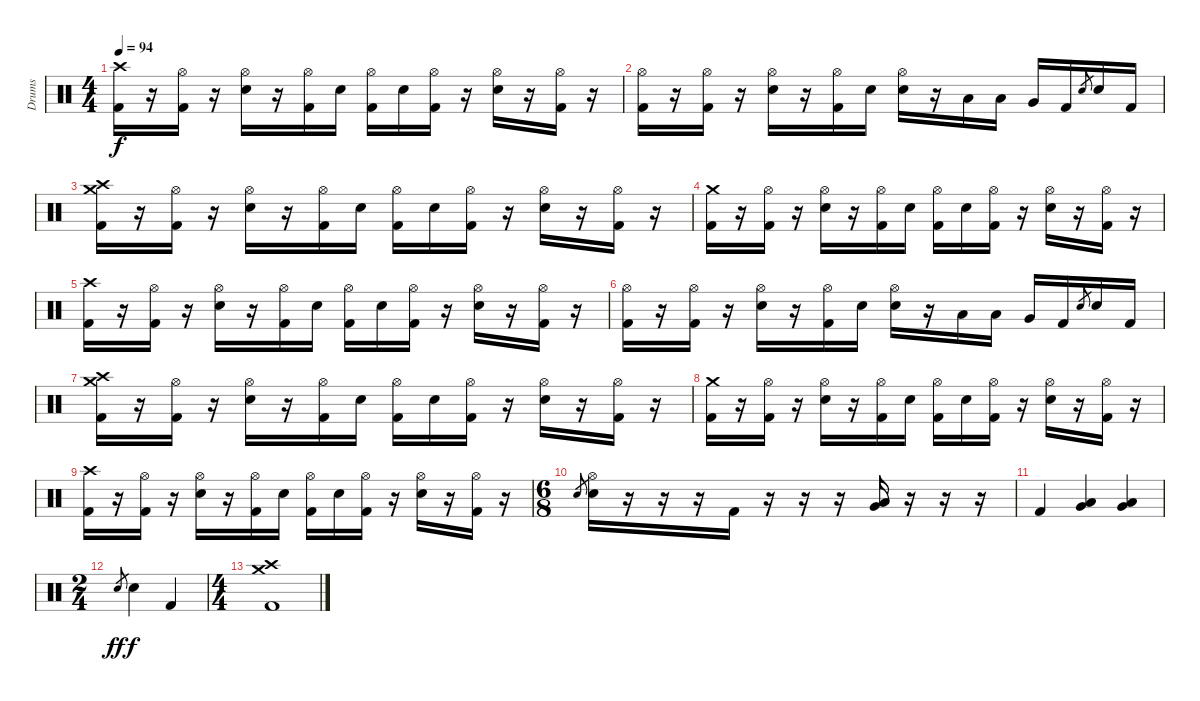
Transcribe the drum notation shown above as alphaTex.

\track ("Drums" "Drums") {instrument percussion}
\staff {score}
\articulation defaults
\ts (4 4)
\tempo 94
\clef neutral
\ks c
("Crash high (hit)" "Kick (hit) 2").16{dy f} r.16 ("Hi-Hat (open)" "Kick (hit) 2").16 r.16 ("Hi-Hat (open)" "Snare (hit) 2").16 r.16 ("Hi-Hat (open)" "Kick (hit) 2").16 "Snare (hit) 2".16 ("Hi-Hat (open)" "Kick (hit) 2").16 "Snare (hit) 2".16 ("Hi-Hat (open)" "Kick (hit) 2").16 r.16 ("Hi-Hat (open)" "Snare (hit) 2").16 r.16 ("Hi-Hat (open)" "Kick (hit) 2").16 r.16 |
("Hi-Hat (open)" "Kick (hit) 2").16 r.16 ("Hi-Hat (open)" "Kick (hit) 2").16 r.16 ("Hi-Hat (open)" "Snare (hit) 2").16 r.16 ("Hi-Hat (open)" "Kick (hit) 2").16 "Snare (hit) 2".16 ("Hi-Hat (open)" "Snare (hit) 2").16 r.16 "Low Tom (hit)".16 "Low Tom (hit)".16 "Very Low Tom (hit)".16 "Kick (hit) 2".16 "Snare (hit) 2".8{gr} "Snare (hit) 2".16 "Kick (hit) 2".16 |
("Crash high (hit)" "Crash medium (hit)" "Kick (hit) 2").16 r.16 ("Hi-Hat (open)" "Kick (hit) 2").16 r.16 ("Hi-Hat (open)" "Snare (hit) 2").16 r.16 ("Hi-Hat (open)" "Kick (hit) 2").16 "Snare (hit) 2".16 ("Hi-Hat (open)" "Kick (hit) 2").16 "Snare (hit) 2".16 ("Hi-Hat (open)" "Kick (hit) 2").16 r.16 ("Hi-Hat (open)" "Snare (hit) 2").16 r.16 ("Hi-Hat (open)" "Kick (hit) 2").16 r.16 |
("Crash medium (hit)" "Kick (hit) 2").16 r.16 ("Hi-Hat (open)" "Kick (hit) 2").16 r.16 ("Hi-Hat (open)" "Snare (hit) 2").16 r.16 ("Hi-Hat (open)" "Kick (hit) 2").16 "Snare (hit) 2".16 ("Hi-Hat (open)" "Kick (hit) 2").16 "Snare (hit) 2".16 ("Hi-Hat (open)" "Kick (hit) 2").16 r.16 ("Hi-Hat (open)" "Snare (hit) 2").16 r.16 ("Hi-Hat (open)" "Kick (hit) 2").16 r.16 |
("Crash high (hit)" "Kick (hit) 2").16 r.16 ("Hi-Hat (open)" "Kick (hit) 2").16 r.16 ("Hi-Hat (open)" "Snare (hit) 2").16 r.16 ("Hi-Hat (open)" "Kick (hit) 2").16 "Snare (hit) 2".16 ("Hi-Hat (open)" "Kick (hit) 2").16 "Snare (hit) 2".16 ("Hi-Hat (open)" "Kick (hit) 2").16 r.16 ("Hi-Hat (open)" "Snare (hit) 2").16 r.16 ("Hi-Hat (open)" "Kick (hit) 2").16 r.16 |
("Hi-Hat (open)" "Kick (hit) 2").16 r.16 ("Hi-Hat (open)" "Kick (hit) 2").16 r.16 ("Hi-Hat (open)" "Snare (hit) 2").16 r.16 ("Hi-Hat (open)" "Kick (hit) 2").16 "Snare (hit) 2".16 ("Hi-Hat (open)" "Snare (hit) 2").16 r.16 "Low Tom (hit)".16 "Low Tom (hit)".16 "Very Low Tom (hit)".16 "Kick (hit) 2".16 "Snare (hit) 2".8{gr} "Snare (hit) 2".16 "Kick (hit) 2".16 |
("Crash high (hit)" "Crash medium (hit)" "Kick (hit) 2").16 r.16 ("Hi-Hat (open)" "Kick (hit) 2").16 r.16 ("Hi-Hat (open)" "Snare (hit) 2").16 r.16 ("Hi-Hat (open)" "Kick (hit) 2").16 "Snare (hit) 2".16 ("Hi-Hat (open)" "Kick (hit) 2").16 "Snare (hit) 2".16 ("Hi-Hat (open)" "Kick (hit) 2").16 r.16 ("Hi-Hat (open)" "Snare (hit) 2").16 r.16 ("Hi-Hat (open)" "Kick (hit) 2").16 r.16 |
("Crash medium (hit)" "Kick (hit) 2").16 r.16 ("Hi-Hat (open)" "Kick (hit) 2").16 r.16 ("Hi-Hat (open)" "Snare (hit) 2").16 r.16 ("Hi-Hat (open)" "Kick (hit) 2").16 "Snare (hit) 2".16 ("Hi-Hat (open)" "Kick (hit) 2").16 "Snare (hit) 2".16 ("Hi-Hat (open)" "Kick (hit) 2").16 r.16 ("Hi-Hat (open)" "Snare (hit) 2").16 r.16 ("Hi-Hat (open)" "Kick (hit) 2").16 r.16 |
("Crash high (hit)" "Kick (hit) 2").16 r.16 ("Hi-Hat (open)" "Kick (hit) 2").16 r.16 ("Hi-Hat (open)" "Snare (hit) 2").16 r.16 ("Hi-Hat (open)" "Kick (hit) 2").16 "Snare (hit) 2".16 ("Hi-Hat (open)" "Kick (hit) 2").16 "Snare (hit) 2".16 ("Hi-Hat (open)" "Kick (hit) 2").16 r.16 ("Hi-Hat (open)" "Snare (hit) 2").16 r.16 ("Hi-Hat (open)" "Kick (hit) 2").16 r.16 |
\ts (6 8)
"Snare (hit) 2".8{gr} ("Hi-Hat (open)" "Snare (hit) 2").16 r.16 r.16 r.16 "Kick (hit) 2".16 r.16 r.16 r.16 ("Low Tom (hit)" "Very Low Tom (hit)").16 r.16 r.16 r.16 |
"Kick (hit) 2".4 ("Low Tom (hit)" "Very Low Tom (hit)").4 ("Low Tom (hit)" "Very Low Tom (hit)").4 |
\ts (2 4)
"Snare (hit) 2".8{gr dy ff} "Snare (hit) 2".4{dy f} "Kick (hit) 2".4 |
\ts (4 4)
("Crash high (hit)" "Crash medium (hit)" "Kick (hit) 2").1
